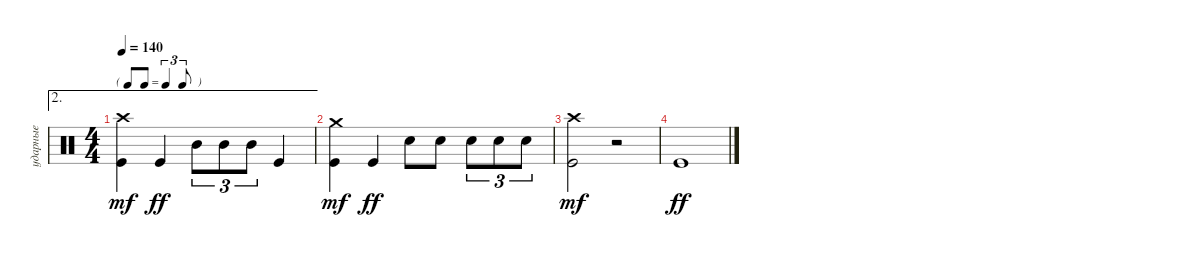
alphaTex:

\track ("ударные" "ударные") {instrument percussion}
\staff {score}
\articulation defaults
\ae 2
\ts (4 4)
\tf triplet8th
\tempo 140
\clef neutral
\ks aminor
("Kick (hit)" "Crash high (hit)").4{dy mf} "Kick (hit)".4{dy ff} "Mid Tom (hit)".8{tu (3 2)} "Mid Tom (hit)".8{tu (3 2)} "Mid Tom (hit)".8{tu (3 2)} "Kick (hit)".4 |
("Kick (hit)" "Crash medium (hit)").4{dy mf} "Kick (hit)".4{dy ff} "Snare (hit) 2".8 "Snare (hit) 2".8 "Snare (hit) 2".8{tu (3 2)} "Snare (hit) 2".8{tu (3 2)} "Snare (hit) 2".8{tu (3 2)} |
("Kick (hit)" "Crash high (hit)").2{dy mf} r.2 |
"Kick (hit)".1{dy ff}
